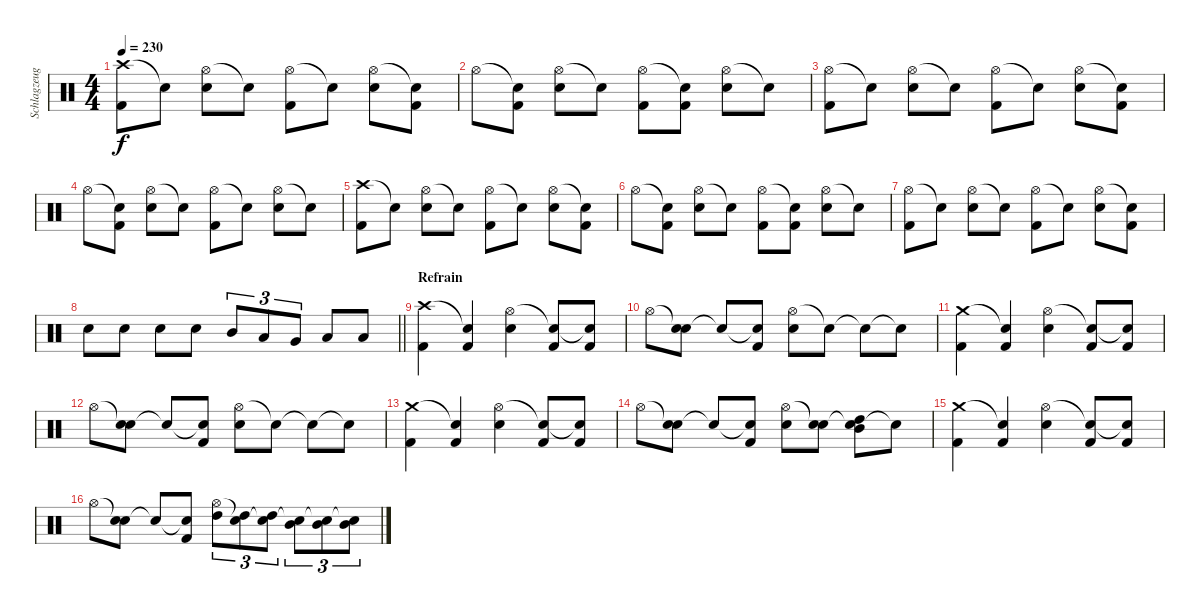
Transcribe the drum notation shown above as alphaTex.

\track ("Schlagzeug" "Schlagzeug") {instrument percussion}
\staff {score}
\articulation defaults
\ts (4 4)
\tempo 230
\clef neutral
\ks c
("Crash high (hit)" "Kick (hit) 2").8{dy f} "Snare (hit)"{t}.8 ("Hi-Hat (open)" "Snare (hit) 2").8 "Snare (hit)"{t}.8 ("Hi-Hat (open)" "Kick (hit) 2").8 "Snare (hit)"{t}.8 ("Hi-Hat (open)" "Snare (hit) 2").8 ("Snare (hit)"{t} "Kick (hit) 2").8 |
"Hi-Hat (open)".8 ("Snare (hit)"{t} "Kick (hit) 2").8 ("Hi-Hat (open)" "Snare (hit) 2").8 "Snare (hit)"{t}.8 ("Hi-Hat (open)" "Kick (hit) 2").8 ("Snare (hit)"{t} "Kick (hit) 2").8 ("Hi-Hat (open)" "Snare (hit) 2").8 "Snare (hit)"{t}.8 |
("Hi-Hat (open)" "Kick (hit) 2").8 "Snare (hit)"{t}.8 ("Hi-Hat (open)" "Snare (hit) 2").8 "Snare (hit)"{t}.8 ("Hi-Hat (open)" "Kick (hit) 2").8 "Snare (hit)"{t}.8 ("Hi-Hat (open)" "Snare (hit) 2").8 ("Snare (hit)"{t} "Kick (hit) 2").8 |
"Hi-Hat (open)".8 ("Snare (hit)"{t} "Kick (hit) 2").8 ("Hi-Hat (open)" "Snare (hit) 2").8 "Snare (hit)"{t}.8 ("Hi-Hat (open)" "Kick (hit) 2").8 "Snare (hit)"{t}.8 ("Hi-Hat (open)" "Snare (hit) 2").8 "Snare (hit)"{t}.8 |
("Crash high (hit)" "Kick (hit) 2").8 "Snare (hit)"{t}.8 ("Hi-Hat (open)" "Snare (hit) 2").8 "Snare (hit)"{t}.8 ("Hi-Hat (open)" "Kick (hit) 2").8 "Snare (hit)"{t}.8 ("Hi-Hat (open)" "Snare (hit) 2").8 ("Snare (hit)"{t} "Kick (hit) 2").8 |
"Hi-Hat (open)".8 ("Snare (hit)"{t} "Kick (hit) 2").8 ("Hi-Hat (open)" "Snare (hit) 2").8 "Snare (hit)"{t}.8 ("Hi-Hat (open)" "Kick (hit) 2").8 ("Snare (hit)"{t} "Kick (hit) 2").8 ("Hi-Hat (open)" "Snare (hit) 2").8 "Snare (hit)"{t}.8 |
("Hi-Hat (open)" "Kick (hit) 2").8 "Snare (hit)"{t}.8 ("Hi-Hat (open)" "Snare (hit) 2").8 "Snare (hit)"{t}.8 ("Hi-Hat (open)" "Kick (hit) 2").8 "Snare (hit)"{t}.8 ("Hi-Hat (open)" "Snare (hit) 2").8 ("Snare (hit)"{t} "Kick (hit) 2").8 |
\barLineRight lightlight "Snare (hit) 2".8 "Snare (hit) 2".8 "Snare (hit) 2".8 "Snare (hit) 2".8 "Mid Tom (hit)".8{tu (3 2)} "Low Tom (hit)".8{tu (3 2)} "Very Low Tom (hit)".8{tu (3 2)} "Low Tom (hit)".8 "Low Floor Tom (hit)".8
|
\section ("" "Refrain")
("Crash high (hit)" "Kick (hit) 2").4 ("Snare (hit)"{t} "Kick (hit) 2").4 ("Hi-Hat (open)" "Snare (hit) 2").4 ("Snare (hit)"{t} "Kick (hit) 2").8 ("Snare (hit)"{t} "Kick (hit) 2").8 |
"Hi-Hat (open)".8 ("Snare (hit)"{t} "Snare (hit) 2").8 "Snare (hit)"{t}.8 ("Snare (hit)"{t} "Kick (hit) 2").8 ("Hi-Hat (open)" "Snare (hit) 2").8 "Snare (hit)"{t}.8 "Snare (hit)"{t}.8 "Snare (hit)"{t}.8 |
("Crash medium (hit)" "Kick (hit) 2").4 ("Snare (hit)"{t} "Kick (hit) 2").4 ("Hi-Hat (open)" "Snare (hit) 2").4 ("Snare (hit)"{t} "Kick (hit) 2").8 ("Snare (hit)"{t} "Kick (hit) 2").8 |
"Hi-Hat (open)".8 ("Snare (hit)"{t} "Snare (hit) 2").8 "Snare (hit)"{t}.8 ("Snare (hit)"{t} "Kick (hit) 2").8 ("Hi-Hat (open)" "Snare (hit) 2").8 "Snare (hit)"{t}.8 "Snare (hit)"{t}.8 "Snare (hit)"{t}.8 |
("Crash medium (hit)" "Kick (hit) 2").4 ("Snare (hit)"{t} "Kick (hit) 2").4 ("Hi-Hat (open)" "Snare (hit) 2").4 ("Snare (hit)"{t} "Kick (hit) 2").8 ("Snare (hit)"{t} "Kick (hit) 2").8 |
"Hi-Hat (open)".8 ("Snare (hit)"{t} "Snare (hit) 2").8 "Snare (hit)"{t}.8 ("Snare (hit)"{t} "Kick (hit) 2").8 ("Hi-Hat (open)" "Snare (hit) 2").8 ("Snare (hit)"{t} "Snare (hit) 2").8 ("Snare (hit)"{t} "Mid Tom (hit)" "High Tom (hit)").8 "Snare (hit)"{t}.8 |
("Crash medium (hit)" "Kick (hit) 2").4 ("Snare (hit)"{t} "Kick (hit) 2").4 ("Hi-Hat (open)" "Snare (hit) 2").4 ("Snare (hit)"{t} "Kick (hit) 2").8 ("Snare (hit)"{t} "Kick (hit) 2").8 |
"Hi-Hat (open)".8 ("Snare (hit)"{t} "Snare (hit) 2").8 "Snare (hit)"{t}.8 ("Snare (hit)"{t} "Kick (hit) 2").8 ("Hi-Hat (open)" "High Tom (hit)").8{tu (3 2)} ("Snare (hit)"{t} "High Tom (hit)").8{tu (3 2)} ("Snare (hit)"{t} "High Tom (hit)").8{tu (3 2)} ("Snare (hit)"{t} "Mid Tom (hit)").8{tu (3 2)} ("Snare (hit)"{t} "Mid Tom (hit)").8{tu (3 2)} ("Snare (hit)"{t} "Mid Tom (hit)").8{tu (3 2)}
